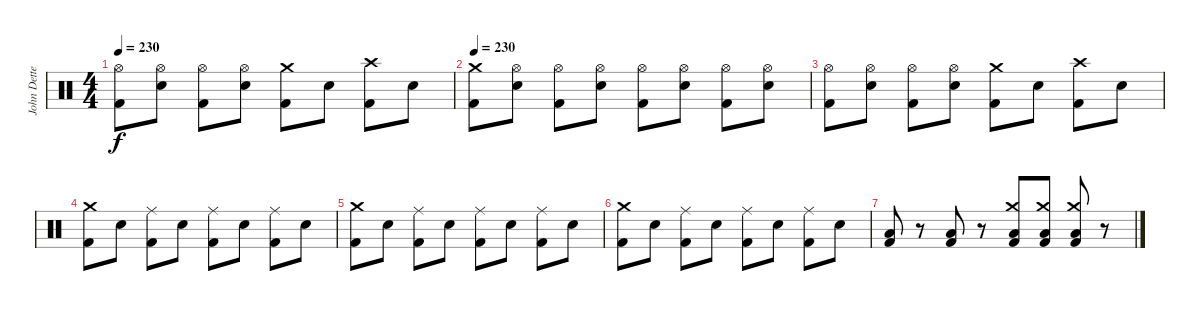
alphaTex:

\track ("John Dette" "John Dette") {instrument percussion}
\staff {score}
\articulation defaults
\ts (4 4)
\tempo 230
\clef neutral
\ks c
("Hi-Hat (open)" "Kick (hit) 2").8{dy f} ("Hi-Hat (open)" "Snare (hit) 2").8 ("Hi-Hat (open)" "Kick (hit) 2").8 ("Hi-Hat (open)" "Snare (hit) 2").8 ("Crash medium (hit)" "Kick (hit) 2").8 "Snare (hit) 2".8 ("Crash high (hit)" "Kick (hit) 2").8 "Snare (hit) 2".8 |
\tempo 230
("Crash medium (hit)" "Kick (hit) 2").8 ("Hi-Hat (open)" "Snare (hit) 2").8 ("Hi-Hat (open)" "Kick (hit) 2").8 ("Hi-Hat (open)" "Snare (hit) 2").8 ("Hi-Hat (open)" "Kick (hit) 2").8 ("Hi-Hat (open)" "Snare (hit) 2").8 ("Hi-Hat (open)" "Kick (hit) 2").8 ("Hi-Hat (open)" "Snare (hit) 2").8 |
("Hi-Hat (open)" "Kick (hit) 2").8 ("Hi-Hat (open)" "Snare (hit) 2").8 ("Hi-Hat (open)" "Kick (hit) 2").8 ("Hi-Hat (open)" "Snare (hit) 2").8 ("Crash medium (hit)" "Kick (hit) 2").8 "Snare (hit) 2".8 ("Crash high (hit)" "Kick (hit) 2").8 "Snare (hit) 2".8 |
("Crash medium (hit)" "Kick (hit) 2").8 "Snare (hit) 2".8 ("Ride (middle)" "Kick (hit) 2").8 "Snare (hit) 2".8 ("Ride (middle)" "Kick (hit) 2").8 "Snare (hit) 2".8 ("Ride (middle)" "Kick (hit) 2").8 "Snare (hit) 2".8 |
("Crash medium (hit)" "Kick (hit) 2").8 "Snare (hit) 2".8 ("Ride (middle)" "Kick (hit) 2").8 "Snare (hit) 2".8 ("Ride (middle)" "Kick (hit) 2").8 "Snare (hit) 2".8 ("Ride (middle)" "Kick (hit) 2").8 "Snare (hit) 2".8 |
("Crash medium (hit)" "Kick (hit) 2").8 "Snare (hit) 2".8 ("Ride (middle)" "Kick (hit) 2").8 "Snare (hit) 2".8 ("Ride (middle)" "Kick (hit) 2").8 "Snare (hit) 2".8 ("Ride (middle)" "Kick (hit) 2").8 "Snare (hit) 2".8 |
("Low Floor Tom (hit)" "Kick (hit) 2").8 r.8 ("Low Floor Tom (hit)" "Kick (hit) 2").8 r.8 ("Crash medium (hit)" "Low Floor Tom (hit)" "Kick (hit) 2").8 ("Crash medium (hit)" "Low Floor Tom (hit)" "Kick (hit) 2").8 ("Crash medium (hit)" "Low Floor Tom (hit)" "Kick (hit) 2").8 r.8
